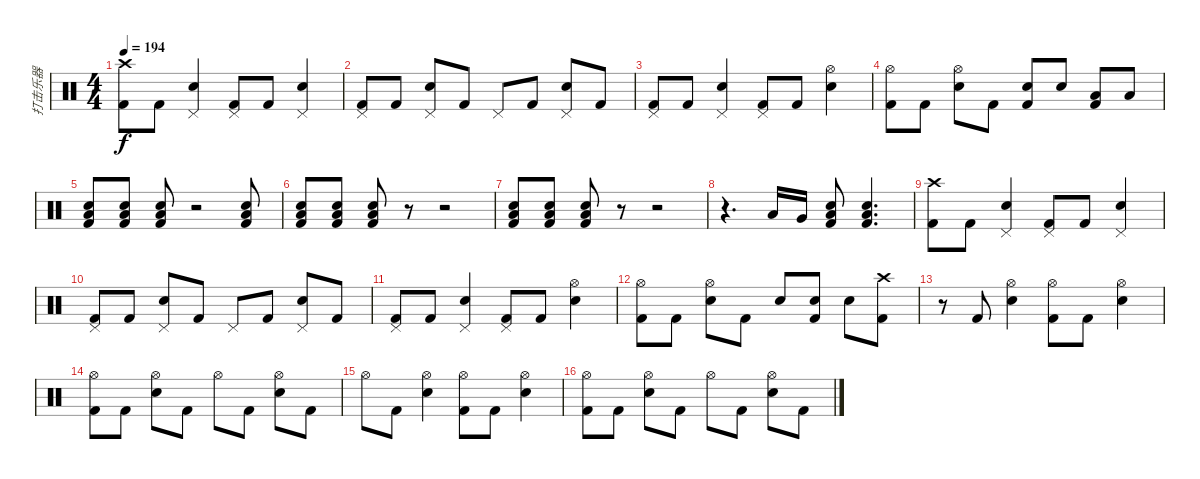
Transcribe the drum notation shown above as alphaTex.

\track ("打击乐器" "打击乐器") {instrument percussion}
\staff {score}
\articulation defaults
\ts (4 4)
\tempo 194
\clef neutral
\ks c
("Crash high (hit)" "Kick (hit) 2").8{dy f} "Kick (hit) 2".8 ("Pedal Hi-Hat (hit)" "Electric Snare (hit)").4 ("Pedal Hi-Hat (hit)" "Kick (hit) 2").8 "Kick (hit) 2".8 ("Pedal Hi-Hat (hit)" "Electric Snare (hit)").4 |
("Pedal Hi-Hat (hit)" "Kick (hit) 2").8 "Kick (hit) 2".8 ("Pedal Hi-Hat (hit)" "Electric Snare (hit)").8 "Kick (hit) 2".8 "Pedal Hi-Hat (hit)".8 "Kick (hit) 2".8 ("Pedal Hi-Hat (hit)" "Electric Snare (hit)").8 "Kick (hit) 2".8 |
("Pedal Hi-Hat (hit)" "Kick (hit) 2").8 "Kick (hit) 2".8 ("Pedal Hi-Hat (hit)" "Electric Snare (hit)").4 ("Pedal Hi-Hat (hit)" "Kick (hit) 2").8 "Kick (hit) 2".8 ("Hi-Hat (open)" "Electric Snare (hit)").4 |
("Hi-Hat (open)" "Kick (hit) 2").8 "Kick (hit) 2".8 ("Hi-Hat (open)" "Electric Snare (hit)").8 "Kick (hit) 2".8 ("Electric Snare (hit)" "Kick (hit) 2").8 "Electric Snare (hit)".8 ("Low Tom (hit)" "Kick (hit) 2").8 "Low Tom (hit)".8 |
("Electric Snare (hit)" "Low Floor Tom (hit)" "Kick (hit) 2").8 ("Electric Snare (hit)" "Low Floor Tom (hit)" "Kick (hit) 2").8 ("Electric Snare (hit)" "Low Floor Tom (hit)" "Kick (hit) 2").8 r.2 ("Electric Snare (hit)" "Low Floor Tom (hit)" "Kick (hit) 2").8 |
("Electric Snare (hit)" "Low Floor Tom (hit)" "Kick (hit) 2").8 ("Electric Snare (hit)" "Low Floor Tom (hit)" "Kick (hit) 2").8 ("Electric Snare (hit)" "Low Floor Tom (hit)" "Kick (hit) 2").8 r.8 r.2 |
("Electric Snare (hit)" "Low Floor Tom (hit)" "Kick (hit) 2").8 ("Electric Snare (hit)" "Low Floor Tom (hit)" "Kick (hit) 2").8 ("Electric Snare (hit)" "Low Floor Tom (hit)" "Kick (hit) 2").8 r.8 r.2 |
r.4{d} "Low Tom (hit)".16 "Very Low Tom (hit)".16 ("Electric Snare (hit)" "Low Floor Tom (hit)" "Kick (hit) 2").8 ("Electric Snare (hit)" "Low Floor Tom (hit)" "Kick (hit) 2").4{d} |
("Crash high (hit)" "Kick (hit) 2").8 "Kick (hit) 2".8 ("Pedal Hi-Hat (hit)" "Electric Snare (hit)").4 ("Pedal Hi-Hat (hit)" "Kick (hit) 2").8 "Kick (hit) 2".8 ("Pedal Hi-Hat (hit)" "Electric Snare (hit)").4 |
("Pedal Hi-Hat (hit)" "Kick (hit) 2").8 "Kick (hit) 2".8 ("Pedal Hi-Hat (hit)" "Electric Snare (hit)").8 "Kick (hit) 2".8 "Pedal Hi-Hat (hit)".8 "Kick (hit) 2".8 ("Pedal Hi-Hat (hit)" "Electric Snare (hit)").8 "Kick (hit) 2".8 |
("Pedal Hi-Hat (hit)" "Kick (hit) 2").8 "Kick (hit) 2".8 ("Pedal Hi-Hat (hit)" "Electric Snare (hit)").4 ("Pedal Hi-Hat (hit)" "Kick (hit) 2").8 "Kick (hit) 2".8 ("Hi-Hat (open)" "Electric Snare (hit)").4 |
("Hi-Hat (open)" "Kick (hit) 2").8 "Kick (hit) 2".8 ("Hi-Hat (open)" "Electric Snare (hit)").8 "Kick (hit) 2".8 "Electric Snare (hit)".8 ("Electric Snare (hit)" "Kick (hit) 2").8 "Electric Snare (hit)".8 ("Crash high (hit)" "Kick (hit) 2").8 |
r.8 "Kick (hit) 2".8 ("Hi-Hat (open)" "Electric Snare (hit)").4 ("Hi-Hat (open)" "Kick (hit) 2").8 "Kick (hit) 2".8 ("Hi-Hat (open)" "Electric Snare (hit)").4 |
("Hi-Hat (open)" "Kick (hit) 2").8 "Kick (hit) 2".8 ("Hi-Hat (open)" "Electric Snare (hit)").8 "Kick (hit) 2".8 "Hi-Hat (open)".8 "Kick (hit) 2".8 ("Hi-Hat (open)" "Electric Snare (hit)").8 "Kick (hit) 2".8 |
"Hi-Hat (open)".8 "Kick (hit) 2".8 ("Hi-Hat (open)" "Electric Snare (hit)").4 ("Hi-Hat (open)" "Kick (hit) 2").8 "Kick (hit) 2".8 ("Hi-Hat (open)" "Electric Snare (hit)").4 |
("Hi-Hat (open)" "Kick (hit) 2").8 "Kick (hit) 2".8 ("Hi-Hat (open)" "Electric Snare (hit)").8 "Kick (hit) 2".8 "Hi-Hat (open)".8 "Kick (hit) 2".8 ("Hi-Hat (open)" "Electric Snare (hit)").8 "Kick (hit) 2".8
